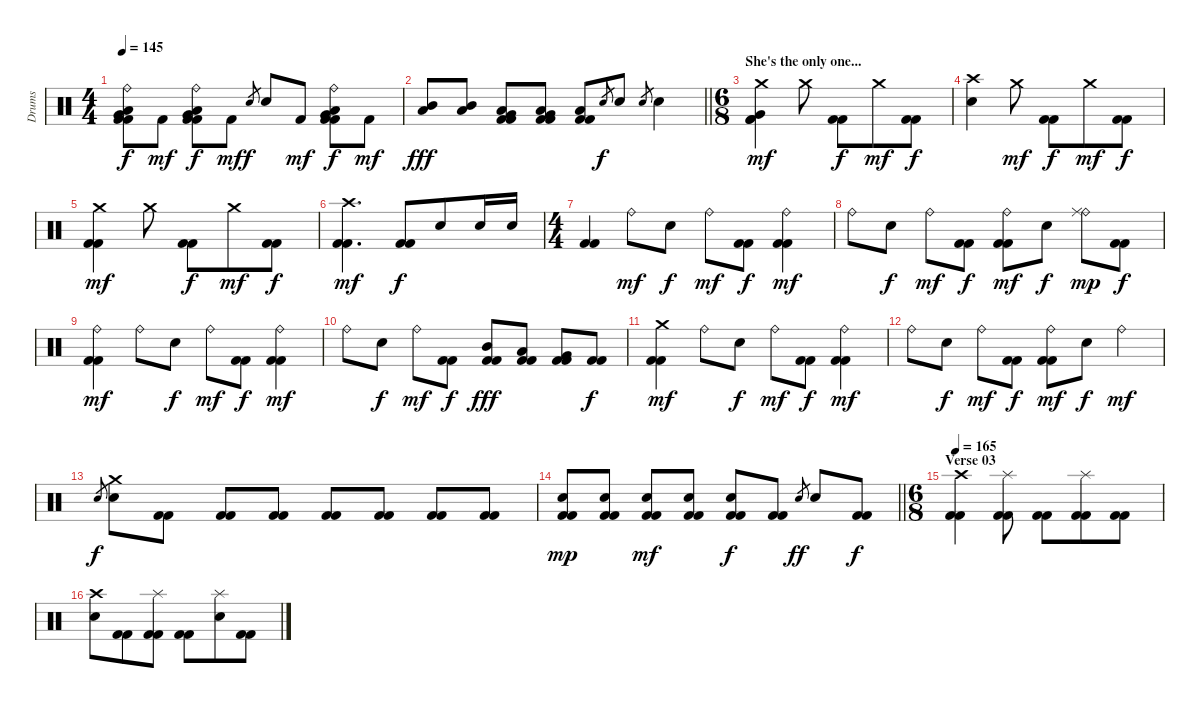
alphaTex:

\track ("Drums" "Drums") {instrument percussion}
\staff {score}
\articulation defaults
\ts (4 4)
\tempo 145
\clef neutral
\ks c
("Ride (bell)" "Very Low Tom (hit)" "Low Floor Tom (hit)" "Kick (hit) 2" "Kick (hit) 2").8{dy f} "Kick (hit) 2".8{dy mf} ("Ride (bell)" "Very Low Tom (hit)" "Low Floor Tom (hit)" "Kick (hit) 2" "Kick (hit) 2").8{dy f} "Kick (hit) 2".8{dy mf} "Electric Snare (hit)".8{gr dy f} "Electric Snare (hit)".8 "Kick (hit) 2".8{dy mf} ("Ride (bell)" "Very Low Tom (hit)" "Low Floor Tom (hit)" "Kick (hit) 2" "Kick (hit) 2").8{dy f} "Kick (hit) 2".8{dy mf} |
\barLineRight lightlight
("Mid Tom (hit)" "Low Tom (hit)").8{dy fff} ("Mid Tom (hit)" "Low Tom (hit)").8 ("Low Tom (hit)" "Very Low Tom (hit)" "Kick (hit) 2" "Kick (hit) 2").8 ("Low Tom (hit)" "Very Low Tom (hit)" "Kick (hit) 2" "Kick (hit) 2").8 ("Low Floor Tom (hit)" "Kick (hit) 2" "Kick (hit) 2").8 "Electric Snare (hit)".8{gr dy f} "Electric Snare (hit)".8 "Electric Snare (hit)".8{gr} "Electric Snare (hit)".4 |
\ts (6 8)
\section ("" "She's the only one...")
("Crash medium (hit)" "Very Low Tom (hit)" "Kick (hit) 2" "Kick (hit) 2").4{dy mf} "Crash medium (hit)".8 ("Kick (hit) 2" "Kick (hit) 2").8{dy f} "Crash medium (hit)".8{dy mf} ("Kick (hit) 2" "Kick (hit) 2").8{dy f} |
("Crash high (hit)" "Electric Snare (hit)").4 "Crash medium (hit)".8{dy mf} ("Kick (hit) 2" "Kick (hit) 2").8{dy f} "Crash medium (hit)".8{dy mf} ("Kick (hit) 2" "Kick (hit) 2").8{dy f} |
("Crash medium (hit)" "Kick (hit) 2" "Kick (hit) 2").4{dy mf} "Crash medium (hit)".8 ("Kick (hit) 2" "Kick (hit) 2").8{dy f} "Crash medium (hit)".8{dy mf} ("Kick (hit) 2" "Kick (hit) 2").8{dy f} |
("Crash high (hit)" "Kick (hit) 2" "Kick (hit) 2").4{d dy mf} ("Kick (hit) 2" "Kick (hit) 2").8{dy f} "Electric Snare (hit)".8 "Electric Snare (hit)".16 "Electric Snare (hit)".16 |
\ts (4 4)
("Kick (hit) 2" "Kick (hit) 2").4 "Ride (bell)".8{dy mf} "Electric Snare (hit)".8{dy f} "Ride (bell)".8{dy mf} ("Kick (hit) 2" "Kick (hit) 2").8{dy f} ("Ride (bell)" "Kick (hit) 2" "Kick (hit) 2").4{dy mf} |
"Ride (bell)".8 "Electric Snare (hit)".8{dy f} "Ride (bell)".8{dy mf} ("Kick (hit) 2" "Kick (hit) 2").8{dy f} ("Ride (bell)" "Kick (hit) 2" "Kick (hit) 2").8{dy mf} "Electric Snare (hit)".8{dy f} ("Ride (bell)" "Ride (middle)").8{dy mp} ("Kick (hit) 2" "Kick (hit) 2").8{dy f} |
("Ride (bell)" "Kick (hit) 2" "Kick (hit) 2").4{dy mf} "Ride (bell)".8 "Electric Snare (hit)".8{dy f} "Ride (bell)".8{dy mf} ("Kick (hit) 2" "Kick (hit) 2").8{dy f} ("Ride (bell)" "Kick (hit) 2" "Kick (hit) 2").4{dy mf} |
"Ride (bell)".8 "Electric Snare (hit)".8{dy f} "Ride (bell)".8{dy mf} ("Kick (hit) 2" "Kick (hit) 2").8{dy f} ("Mid Tom (hit)" "Kick (hit) 2" "Kick (hit) 2").8{dy fff} ("Low Tom (hit)" "Kick (hit) 2" "Kick (hit) 2").8 ("Very Low Tom (hit)" "Kick (hit) 2" "Kick (hit) 2").8 ("Kick (hit) 2" "Kick (hit) 2").8{dy f} |
("Crash medium (hit)" "Kick (hit) 2" "Kick (hit) 2").4{dy mf} "Ride (bell)".8 "Electric Snare (hit)".8{dy f} "Ride (bell)".8{dy mf} ("Kick (hit) 2" "Kick (hit) 2").8{dy f} ("Ride (bell)" "Kick (hit) 2" "Kick (hit) 2").4{dy mf} |
"Ride (bell)".8 "Electric Snare (hit)".8{dy f} "Ride (bell)".8{dy mf} ("Kick (hit) 2" "Kick (hit) 2").8{dy f} ("Ride (bell)" "Kick (hit) 2" "Kick (hit) 2").8{dy mf} "Electric Snare (hit)".8{dy f} "Ride (bell)".4{dy mf} |
"Electric Snare (hit)".8{gr dy f} ("Crash medium (hit)" "Electric Snare (hit)").8 ("Kick (hit) 2" "Kick (hit) 2").8 ("Kick (hit) 2" "Kick (hit) 2").8 ("Kick (hit) 2" "Kick (hit) 2").8 ("Kick (hit) 2" "Kick (hit) 2").8 ("Kick (hit) 2" "Kick (hit) 2").8 ("Kick (hit) 2" "Kick (hit) 2").8 ("Kick (hit) 2" "Kick (hit) 2").8 |
\barLineRight lightlight
("Electric Snare (hit)" "Kick (hit) 2" "Kick (hit) 2").8{dy mp} ("Electric Snare (hit)" "Kick (hit) 2" "Kick (hit) 2").8 ("Electric Snare (hit)" "Kick (hit) 2" "Kick (hit) 2").8{dy mf} ("Electric Snare (hit)" "Kick (hit) 2" "Kick (hit) 2").8 ("Electric Snare (hit)" "Kick (hit) 2" "Kick (hit) 2").8{dy f} ("Kick (hit) 2" "Kick (hit) 2").8 "Electric Snare (hit)".8{gr dy ff} "Electric Snare (hit)".8 ("Kick (hit) 2" "Kick (hit) 2").8{dy f} |
\ts (6 8)
\section ("" "Verse 03")
\tempo 165
("Crash high (hit)" "Kick (hit) 2" "Kick (hit) 2").4 ("Splash (hit)" "Kick (hit) 2" "Kick (hit) 2").8 ("Kick (hit) 2" "Kick (hit) 2").8 ("Splash (hit)" "Kick (hit) 2" "Kick (hit) 2").8 ("Kick (hit) 2" "Kick (hit) 2").8 |
("Crash high (hit)" "Electric Snare (hit)").8 ("Kick (hit) 2" "Kick (hit) 2").8 ("Splash (hit)" "Kick (hit) 2" "Kick (hit) 2").8 ("Kick (hit) 2" "Kick (hit) 2").8 ("Splash (hit)" "Electric Snare (hit)").8 ("Kick (hit) 2" "Kick (hit) 2").8
